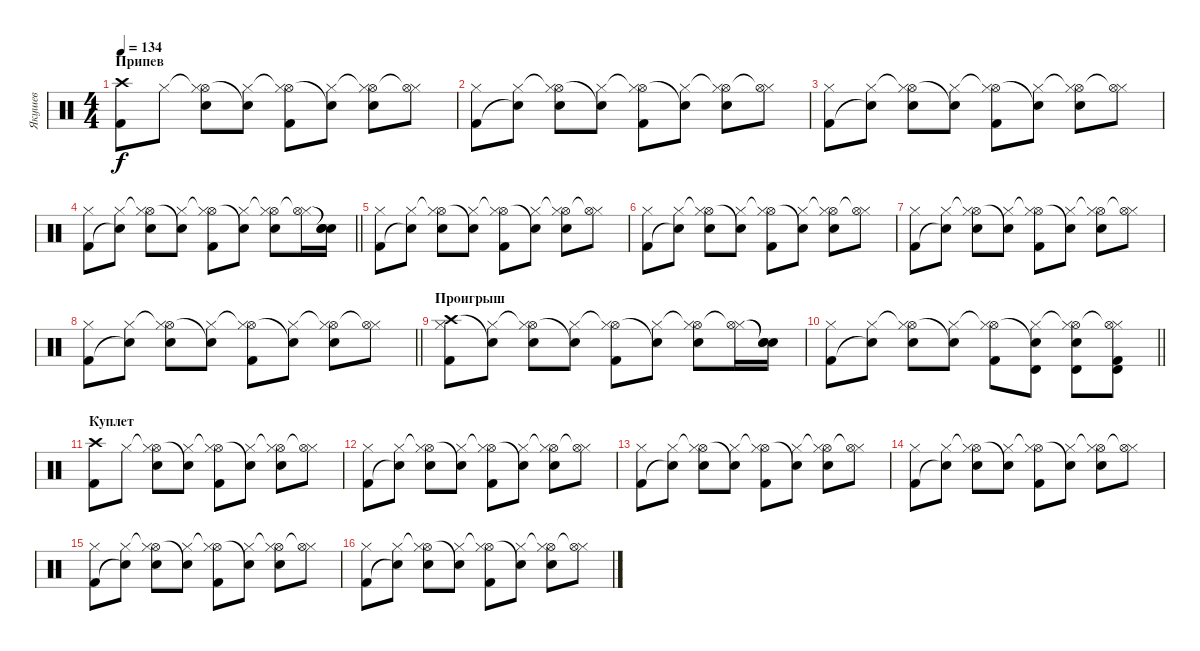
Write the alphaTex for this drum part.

\track ("Якушев" "Якушев") {instrument percussion}
\staff {score}
\articulation defaults
\ts (4 4)
\section ("" "Припев")
\tempo 134
\clef neutral
\ks c
("Crash high (hit)" "Kick (hit) 2").8{dy f} "Hi-Hat (closed)".8 ("Hi-Hat (open)"{t} "Hi-Hat (closed)" "Snare (hit) 2").8 ("Hi-Hat (closed)" "Snare (hit)"{t}).8 ("Hi-Hat (open)"{t} "Hi-Hat (closed)" "Kick (hit) 2").8 ("Hi-Hat (closed)" "Snare (hit)"{t}).8 ("Hi-Hat (open)"{t} "Hi-Hat (closed)" "Snare (hit) 2").8 ("Hi-Hat (closed)" "Hi-Hat (open)"{t}).8 |
("Hi-Hat (closed)" "Kick (hit) 2").8 ("Hi-Hat (closed)" "Snare (hit)"{t}).8 ("Hi-Hat (open)"{t} "Hi-Hat (closed)" "Snare (hit) 2").8 ("Hi-Hat (closed)" "Snare (hit)"{t}).8 ("Hi-Hat (open)"{t} "Hi-Hat (closed)" "Kick (hit) 2").8 ("Hi-Hat (closed)" "Snare (hit)"{t}).8 ("Hi-Hat (open)"{t} "Hi-Hat (closed)" "Snare (hit) 2").8 ("Hi-Hat (closed)" "Hi-Hat (open)"{t}).8 |
("Hi-Hat (closed)" "Kick (hit) 2").8 ("Hi-Hat (closed)" "Snare (hit)"{t}).8 ("Hi-Hat (open)"{t} "Hi-Hat (closed)" "Snare (hit) 2").8 ("Hi-Hat (closed)" "Snare (hit)"{t}).8 ("Hi-Hat (open)"{t} "Hi-Hat (closed)" "Kick (hit) 2").8 ("Hi-Hat (closed)" "Snare (hit)"{t}).8 ("Hi-Hat (open)"{t} "Hi-Hat (closed)" "Snare (hit) 2").8 ("Hi-Hat (closed)" "Hi-Hat (open)"{t}).8 |
\barLineRight lightlight
("Hi-Hat (closed)" "Kick (hit) 2").8 ("Hi-Hat (closed)" "Snare (hit)"{t}).8 ("Hi-Hat (open)"{t} "Hi-Hat (closed)" "Snare (hit) 2").8 ("Hi-Hat (closed)" "Snare (hit)"{t}).8 ("Hi-Hat (open)"{t} "Hi-Hat (closed)" "Kick (hit) 2").8 ("Hi-Hat (closed)" "Snare (hit)"{t}).8 ("Hi-Hat (open)"{t} "Hi-Hat (closed)" "Snare (hit) 2").8 ("Hi-Hat (closed)" "Hi-Hat (open)"{t}).16 ("Snare (hit)"{t} "Snare (hit)"{t} "Snare (hit) 2").16 |
("Hi-Hat (closed)" "Kick (hit) 2").8 ("Hi-Hat (closed)" "Snare (hit)"{t}).8 ("Hi-Hat (open)"{t} "Hi-Hat (closed)" "Snare (hit) 2").8 ("Hi-Hat (closed)" "Snare (hit)"{t}).8 ("Hi-Hat (open)"{t} "Hi-Hat (closed)" "Kick (hit) 2").8 ("Hi-Hat (closed)" "Snare (hit)"{t}).8 ("Hi-Hat (open)"{t} "Hi-Hat (closed)" "Snare (hit) 2").8 ("Hi-Hat (closed)" "Hi-Hat (open)"{t}).8 |
("Hi-Hat (closed)" "Kick (hit) 2").8 ("Hi-Hat (closed)" "Snare (hit)"{t}).8 ("Hi-Hat (open)"{t} "Hi-Hat (closed)" "Snare (hit) 2").8 ("Hi-Hat (closed)" "Snare (hit)"{t}).8 ("Hi-Hat (open)"{t} "Hi-Hat (closed)" "Kick (hit) 2").8 ("Hi-Hat (closed)" "Snare (hit)"{t}).8 ("Hi-Hat (open)"{t} "Hi-Hat (closed)" "Snare (hit) 2").8 ("Hi-Hat (closed)" "Hi-Hat (open)"{t}).8 |
("Hi-Hat (closed)" "Kick (hit) 2").8 ("Hi-Hat (closed)" "Snare (hit)"{t}).8 ("Hi-Hat (open)"{t} "Hi-Hat (closed)" "Snare (hit) 2").8 ("Hi-Hat (closed)" "Snare (hit)"{t}).8 ("Hi-Hat (open)"{t} "Hi-Hat (closed)" "Kick (hit) 2").8 ("Hi-Hat (closed)" "Snare (hit)"{t}).8 ("Hi-Hat (open)"{t} "Hi-Hat (closed)" "Snare (hit) 2").8 ("Hi-Hat (closed)" "Hi-Hat (open)"{t}).8 |
\barLineRight lightlight
("Hi-Hat (closed)" "Kick (hit) 2").8 ("Hi-Hat (closed)" "Snare (hit)"{t}).8 ("Hi-Hat (open)"{t} "Hi-Hat (closed)" "Snare (hit) 2").8 ("Hi-Hat (closed)" "Snare (hit)"{t}).8 ("Hi-Hat (open)"{t} "Hi-Hat (closed)" "Kick (hit) 2").8 ("Hi-Hat (closed)" "Snare (hit)"{t}).8 ("Hi-Hat (open)"{t} "Hi-Hat (closed)" "Snare (hit) 2").8 ("Hi-Hat (closed)" "Hi-Hat (open)"{t}).8 |
\section ("" "Проигрыш")
("Hi-Hat (closed)" "Crash high (hit)" "Kick (hit) 2").8 ("Hi-Hat (closed)" "Snare (hit)"{t}).8 ("Hi-Hat (open)"{t} "Hi-Hat (closed)" "Snare (hit) 2").8 ("Hi-Hat (closed)" "Snare (hit)"{t}).8 ("Hi-Hat (open)"{t} "Hi-Hat (closed)" "Kick (hit) 2").8 ("Hi-Hat (closed)" "Snare (hit)"{t}).8 ("Hi-Hat (open)"{t} "Hi-Hat (closed)" "Snare (hit) 2").8 ("Hi-Hat (closed)" "Hi-Hat (open)"{t}).16 ("Snare (hit)"{t} "Snare (hit)"{t} "Snare (hit) 2").16 |
\barLineRight lightlight
("Hi-Hat (closed)" "Kick (hit) 2").8 ("Hi-Hat (closed)" "Snare (hit)"{t}).8 ("Hi-Hat (open)"{t} "Hi-Hat (closed)" "Snare (hit) 2").8 ("Hi-Hat (closed)" "Snare (hit)"{t}).8 ("Hi-Hat (open)"{t} "Hi-Hat (closed)" "Kick (hit) 2").8 ("Hi-Hat (closed)" "Snare (hit)"{t} "Timbale high (hit)").8 ("Hi-Hat (open)"{t} "Hi-Hat (closed)" "Snare (hit) 2" "Timbale high (hit)").8 ("Hi-Hat (closed)" "Hi-Hat (open)"{t} "Timbale high (hit)" "Kick (hit) 2").8 |
\section ("" "Куплет")
("Crash high (hit)" "Kick (hit) 2").8 "Hi-Hat (closed)".8 ("Hi-Hat (open)"{t} "Hi-Hat (closed)" "Snare (hit) 2").8 ("Hi-Hat (closed)" "Snare (hit)"{t}).8 ("Hi-Hat (open)"{t} "Hi-Hat (closed)" "Kick (hit) 2").8 ("Hi-Hat (closed)" "Snare (hit)"{t}).8 ("Hi-Hat (open)"{t} "Hi-Hat (closed)" "Snare (hit) 2").8 ("Hi-Hat (closed)" "Hi-Hat (open)"{t}).8 |
("Hi-Hat (closed)" "Kick (hit) 2").8 ("Hi-Hat (closed)" "Snare (hit)"{t}).8 ("Hi-Hat (open)"{t} "Hi-Hat (closed)" "Snare (hit) 2").8 ("Hi-Hat (closed)" "Snare (hit)"{t}).8 ("Hi-Hat (open)"{t} "Hi-Hat (closed)" "Kick (hit) 2").8 ("Hi-Hat (closed)" "Snare (hit)"{t}).8 ("Hi-Hat (open)"{t} "Hi-Hat (closed)" "Snare (hit) 2").8 ("Hi-Hat (closed)" "Hi-Hat (open)"{t}).8 |
("Hi-Hat (closed)" "Kick (hit) 2").8 ("Hi-Hat (closed)" "Snare (hit)"{t}).8 ("Hi-Hat (open)"{t} "Hi-Hat (closed)" "Snare (hit) 2").8 ("Hi-Hat (closed)" "Snare (hit)"{t}).8 ("Hi-Hat (open)"{t} "Hi-Hat (closed)" "Kick (hit) 2").8 ("Hi-Hat (closed)" "Snare (hit)"{t}).8 ("Hi-Hat (open)"{t} "Hi-Hat (closed)" "Snare (hit) 2").8 ("Hi-Hat (closed)" "Hi-Hat (open)"{t}).8 |
("Hi-Hat (closed)" "Kick (hit) 2").8 ("Hi-Hat (closed)" "Snare (hit)"{t}).8 ("Hi-Hat (open)"{t} "Hi-Hat (closed)" "Snare (hit) 2").8 ("Hi-Hat (closed)" "Snare (hit)"{t}).8 ("Hi-Hat (open)"{t} "Hi-Hat (closed)" "Kick (hit) 2").8 ("Hi-Hat (closed)" "Snare (hit)"{t}).8 ("Hi-Hat (open)"{t} "Hi-Hat (closed)" "Snare (hit) 2").8 ("Hi-Hat (closed)" "Hi-Hat (open)"{t}).8 |
("Hi-Hat (closed)" "Kick (hit) 2").8 ("Hi-Hat (closed)" "Snare (hit)"{t}).8 ("Hi-Hat (open)"{t} "Hi-Hat (closed)" "Snare (hit) 2").8 ("Hi-Hat (closed)" "Snare (hit)"{t}).8 ("Hi-Hat (open)"{t} "Hi-Hat (closed)" "Kick (hit) 2").8 ("Hi-Hat (closed)" "Snare (hit)"{t}).8 ("Hi-Hat (open)"{t} "Hi-Hat (closed)" "Snare (hit) 2").8 ("Hi-Hat (closed)" "Hi-Hat (open)"{t}).8 |
("Hi-Hat (closed)" "Kick (hit) 2").8 ("Hi-Hat (closed)" "Snare (hit)"{t}).8 ("Hi-Hat (open)"{t} "Hi-Hat (closed)" "Snare (hit) 2").8 ("Hi-Hat (closed)" "Snare (hit)"{t}).8 ("Hi-Hat (open)"{t} "Hi-Hat (closed)" "Kick (hit) 2").8 ("Hi-Hat (closed)" "Snare (hit)"{t}).8 ("Hi-Hat (open)"{t} "Hi-Hat (closed)" "Snare (hit) 2").8 ("Hi-Hat (closed)" "Hi-Hat (open)"{t}).8
